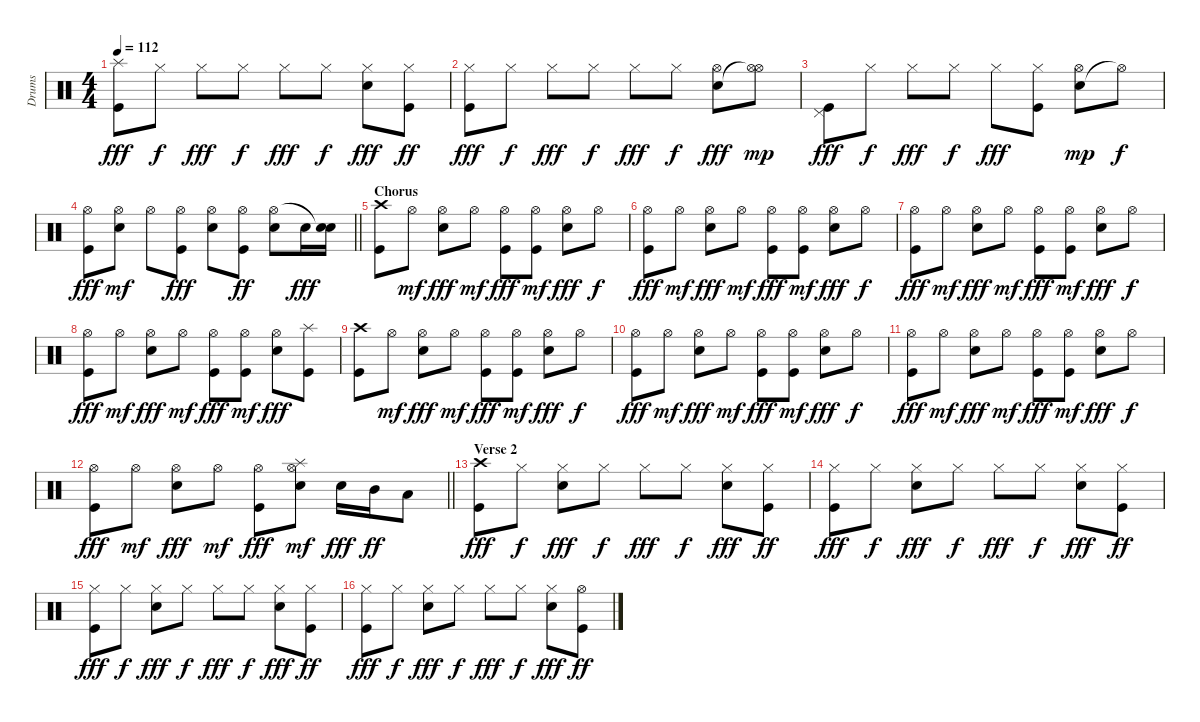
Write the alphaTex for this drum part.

\track ("Drums" "Drums") {instrument percussion}
\staff {score}
\articulation defaults
\ts (4 4)
\tempo 112
\clef neutral
\ks c
("Kick (hit)" "Splash (hit)").8{dy fff} "Hi-Hat (closed)".8{dy f} "Hi-Hat (closed)".8{dy fff} "Hi-Hat (closed)".8{dy f} "Hi-Hat (closed)".8{dy fff} "Hi-Hat (closed)".8{dy f} ("Snare (hit) 2" "Hi-Hat (closed)").8{dy fff} ("Kick (hit)" "Hi-Hat (closed)").8{dy ff} |
("Kick (hit)" "Hi-Hat (closed)").8{dy fff} "Hi-Hat (closed)".8{dy f} "Hi-Hat (closed)".8{dy fff} "Hi-Hat (closed)".8{dy f} "Hi-Hat (closed)".8{dy fff} "Hi-Hat (closed)".8{dy f} ("Snare (hit) 2" "Hi-Hat (open)").8{dy fff} ("Hi-Hat (open)"{t} "Hi-Hat (open)").8{dy mp} |
("Kick (hit)" "Pedal Hi-Hat (hit)").8{dy fff} "Hi-Hat (closed)".8{dy f} "Hi-Hat (closed)".8{dy fff} "Hi-Hat (closed)".8{dy f} "Hi-Hat (closed)".8{dy fff} ("Kick (hit)" "Hi-Hat (closed)").8 ("Snare (hit) 2" "Hi-Hat (open)").8{dy mp} "Hi-Hat (open)"{t}.8{dy f} |
\barLineRight lightlight
("Kick (hit)" "Hi-Hat (open)").8{dy fff} ("Snare (hit) 2" "Hi-Hat (open)").8{dy mf} "Hi-Hat (open)".8 ("Kick (hit)" "Hi-Hat (open)").8{dy fff} ("Snare (hit) 2" "Hi-Hat (open)").8 ("Kick (hit)" "Hi-Hat (open)").8{dy ff} ("Snare (hit) 2" "Hi-Hat (open)").8 "Snare (hit) 2".16{dy fff} ("Snare (hit) 2" "Snare (hit)"{t}).16 |
\section ("" "Chorus")
("Kick (hit)" "Crash high (hit)").8 "Hi-Hat (open)".8{dy mf} ("Snare (hit) 2" "Hi-Hat (open)").8{dy fff} "Hi-Hat (open)".8{dy mf} ("Kick (hit)" "Hi-Hat (open)").8{dy fff} ("Kick (hit)" "Hi-Hat (open)").8{dy mf} ("Snare (hit) 2" "Hi-Hat (open)").8{dy fff} "Hi-Hat (open)".8{dy f} |
("Kick (hit)" "Hi-Hat (open)").8{dy fff} "Hi-Hat (open)".8{dy mf} ("Snare (hit) 2" "Hi-Hat (open)").8{dy fff} "Hi-Hat (open)".8{dy mf} ("Kick (hit)" "Hi-Hat (open)").8{dy fff} ("Kick (hit)" "Hi-Hat (open)").8{dy mf} ("Snare (hit) 2" "Hi-Hat (open)").8{dy fff} "Hi-Hat (open)".8{dy f} |
("Kick (hit)" "Hi-Hat (open)").8{dy fff} "Hi-Hat (open)".8{dy mf} ("Snare (hit) 2" "Hi-Hat (open)").8{dy fff} "Hi-Hat (open)".8{dy mf} ("Kick (hit)" "Hi-Hat (open)").8{dy fff} ("Kick (hit)" "Hi-Hat (open)").8{dy mf} ("Snare (hit) 2" "Hi-Hat (open)").8{dy fff} "Hi-Hat (open)".8{dy f} |
("Kick (hit)" "Hi-Hat (open)").8{dy fff} "Hi-Hat (open)".8{dy mf} ("Snare (hit) 2" "Hi-Hat (open)").8{dy fff} "Hi-Hat (open)".8{dy mf} ("Kick (hit)" "Hi-Hat (open)").8{dy fff} ("Kick (hit)" "Hi-Hat (open)").8{dy mf} ("Snare (hit) 2" "Hi-Hat (open)").8{dy fff} ("Kick (hit)" "Splash (hit)").8 |
("Kick (hit)" "Crash high (hit)").8 "Hi-Hat (open)".8{dy mf} ("Snare (hit) 2" "Hi-Hat (open)").8{dy fff} "Hi-Hat (open)".8{dy mf} ("Kick (hit)" "Hi-Hat (open)").8{dy fff} ("Kick (hit)" "Hi-Hat (open)").8{dy mf} ("Snare (hit) 2" "Hi-Hat (open)").8{dy fff} "Hi-Hat (open)".8{dy f} |
("Kick (hit)" "Hi-Hat (open)").8{dy fff} "Hi-Hat (open)".8{dy mf} ("Snare (hit) 2" "Hi-Hat (open)").8{dy fff} "Hi-Hat (open)".8{dy mf} ("Kick (hit)" "Hi-Hat (open)").8{dy fff} ("Kick (hit)" "Hi-Hat (open)").8{dy mf} ("Snare (hit) 2" "Hi-Hat (open)").8{dy fff} "Hi-Hat (open)".8{dy f} |
("Kick (hit)" "Hi-Hat (open)").8{dy fff} "Hi-Hat (open)".8{dy mf} ("Snare (hit) 2" "Hi-Hat (open)").8{dy fff} "Hi-Hat (open)".8{dy mf} ("Kick (hit)" "Hi-Hat (open)").8{dy fff} ("Kick (hit)" "Hi-Hat (open)").8{dy mf} ("Snare (hit) 2" "Hi-Hat (open)").8{dy fff} "Hi-Hat (open)".8{dy f} |
\barLineRight lightlight
("Kick (hit)" "Hi-Hat (open)").8{dy fff} "Hi-Hat (open)".8{dy mf} ("Snare (hit) 2" "Hi-Hat (open)").8{dy fff} "Hi-Hat (open)".8{dy mf} ("Kick (hit)" "Hi-Hat (open)").8{dy fff} ("Snare (hit) 2" "Hi-Hat (open)" "Splash (hit)").8{dy mf} "Snare (hit) 2".16{dy fff} "Mid Tom (hit)".16{dy ff} "Low Tom (hit)".8 |
\section ("" "Verse 2")
("Kick (hit)" "Crash high (hit)").8{dy fff} "Hi-Hat (closed)".8{dy f} ("Snare (hit) 2" "Hi-Hat (closed)").8{dy fff} "Hi-Hat (closed)".8{dy f} "Hi-Hat (closed)".8{dy fff} "Hi-Hat (closed)".8{dy f} ("Snare (hit) 2" "Hi-Hat (closed)").8{dy fff} ("Kick (hit)" "Hi-Hat (closed)").8{dy ff} |
("Kick (hit)" "Hi-Hat (closed)").8{dy fff} "Hi-Hat (closed)".8{dy f} ("Snare (hit) 2" "Hi-Hat (closed)").8{dy fff} "Hi-Hat (closed)".8{dy f} "Hi-Hat (closed)".8{dy fff} "Hi-Hat (closed)".8{dy f} ("Snare (hit) 2" "Hi-Hat (closed)").8{dy fff} ("Kick (hit)" "Hi-Hat (closed)").8{dy ff} |
("Kick (hit)" "Hi-Hat (closed)").8{dy fff} "Hi-Hat (closed)".8{dy f} ("Snare (hit) 2" "Hi-Hat (closed)").8{dy fff} "Hi-Hat (closed)".8{dy f} "Hi-Hat (closed)".8{dy fff} "Hi-Hat (closed)".8{dy f} ("Snare (hit) 2" "Hi-Hat (closed)").8{dy fff} ("Kick (hit)" "Hi-Hat (closed)").8{dy ff} |
("Kick (hit)" "Hi-Hat (closed)").8{dy fff} "Hi-Hat (closed)".8{dy f} ("Snare (hit) 2" "Hi-Hat (closed)").8{dy fff} "Hi-Hat (closed)".8{dy f} "Hi-Hat (closed)".8{dy fff} "Hi-Hat (closed)".8{dy f} ("Snare (hit) 2" "Hi-Hat (closed)").8{dy fff} ("Kick (hit)" "Hi-Hat (open)").8{dy ff}
